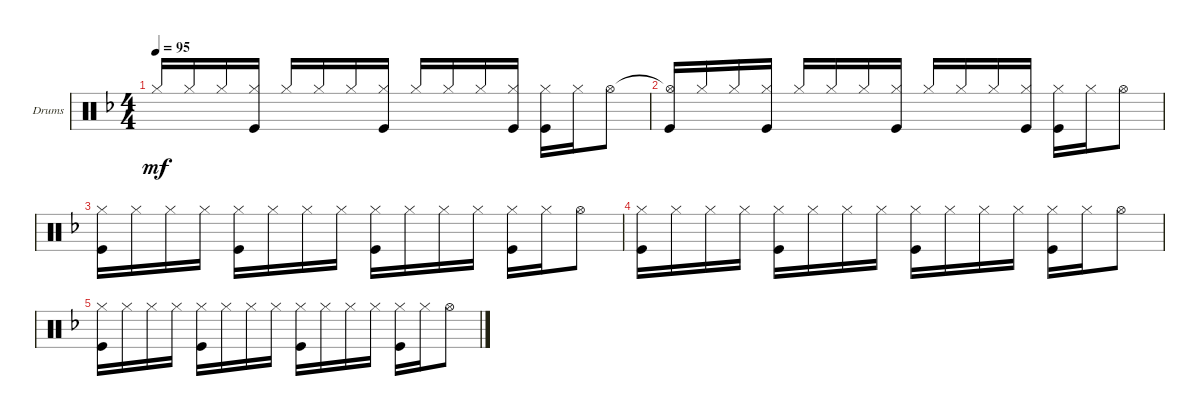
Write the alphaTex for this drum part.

\defaultSystemsLayout 4
\bracketExtendMode groupsimilarinstruments
\firstSystemTrackNameOrientation horizontal
\otherSystemsTrackNameOrientation horizontal
\track ("Drumkit" "Drums") {solo instrument percussion}
\staff {score}
\articulation defaults
\ts (4 4)
\tempo 95
\clef neutral
\ks f "Hi-Hat (closed)".16{dy mf beam invert} "Hi-Hat (closed)".16 "Hi-Hat (closed)".16
("Hi-Hat (closed)" "Kick (hit)").16 "Hi-Hat (closed)".16{beam invert} "Hi-Hat (closed)".16 "Hi-Hat (closed)".16 ("Hi-Hat (closed)" "Kick (hit)").16 "Hi-Hat (closed)".16{beam invert} "Hi-Hat (closed)".16 "Hi-Hat (closed)".16 ("Hi-Hat (closed)" "Kick (hit)").16 ("Kick (hit)" "Hi-Hat (closed)").16 "Hi-Hat (closed)".16 "Hi-Hat (open)".8 |
("Hi-Hat (open)"{t} "Kick (hit)").16{beam invert} "Hi-Hat (closed)".16 "Hi-Hat (closed)".16 ("Hi-Hat (closed)" "Kick (hit)").16 "Hi-Hat (closed)".16{beam invert} "Hi-Hat (closed)".16 "Hi-Hat (closed)".16 ("Hi-Hat (closed)" "Kick (hit)").16 "Hi-Hat (closed)".16{beam invert} "Hi-Hat (closed)".16 "Hi-Hat (closed)".16 ("Hi-Hat (closed)" "Kick (hit)").16 ("Kick (hit)" "Hi-Hat (closed)").16 "Hi-Hat (closed)".16 "Hi-Hat (open)".8 |
("Kick (hit)" "Hi-Hat (closed)").16 "Hi-Hat (closed)".16 "Hi-Hat (closed)".16 "Hi-Hat (closed)".16 ("Hi-Hat (closed)" "Kick (hit)").16 "Hi-Hat (closed)".16 "Hi-Hat (closed)".16 "Hi-Hat (closed)".16 ("Hi-Hat (closed)" "Kick (hit)").16 "Hi-Hat (closed)".16 "Hi-Hat (closed)".16 "Hi-Hat (closed)".16 ("Hi-Hat (closed)" "Kick (hit)").16 "Hi-Hat (closed)".16 "Hi-Hat (open)".8 |
("Kick (hit)" "Hi-Hat (closed)").16 "Hi-Hat (closed)".16 "Hi-Hat (closed)".16 "Hi-Hat (closed)".16 ("Hi-Hat (closed)" "Kick (hit)").16 "Hi-Hat (closed)".16 "Hi-Hat (closed)".16 "Hi-Hat (closed)".16 ("Hi-Hat (closed)" "Kick (hit)").16 "Hi-Hat (closed)".16 "Hi-Hat (closed)".16 "Hi-Hat (closed)".16 ("Hi-Hat (closed)" "Kick (hit)").16 "Hi-Hat (closed)".16 "Hi-Hat (open)".8 |
("Kick (hit)" "Hi-Hat (closed)").16 "Hi-Hat (closed)".16 "Hi-Hat (closed)".16 "Hi-Hat (closed)".16 ("Hi-Hat (closed)" "Kick (hit)").16 "Hi-Hat (closed)".16 "Hi-Hat (closed)".16 "Hi-Hat (closed)".16 ("Hi-Hat (closed)" "Kick (hit)").16 "Hi-Hat (closed)".16 "Hi-Hat (closed)".16 "Hi-Hat (closed)".16 ("Hi-Hat (closed)" "Kick (hit)").16 "Hi-Hat (closed)".16 "Hi-Hat (open)".8
